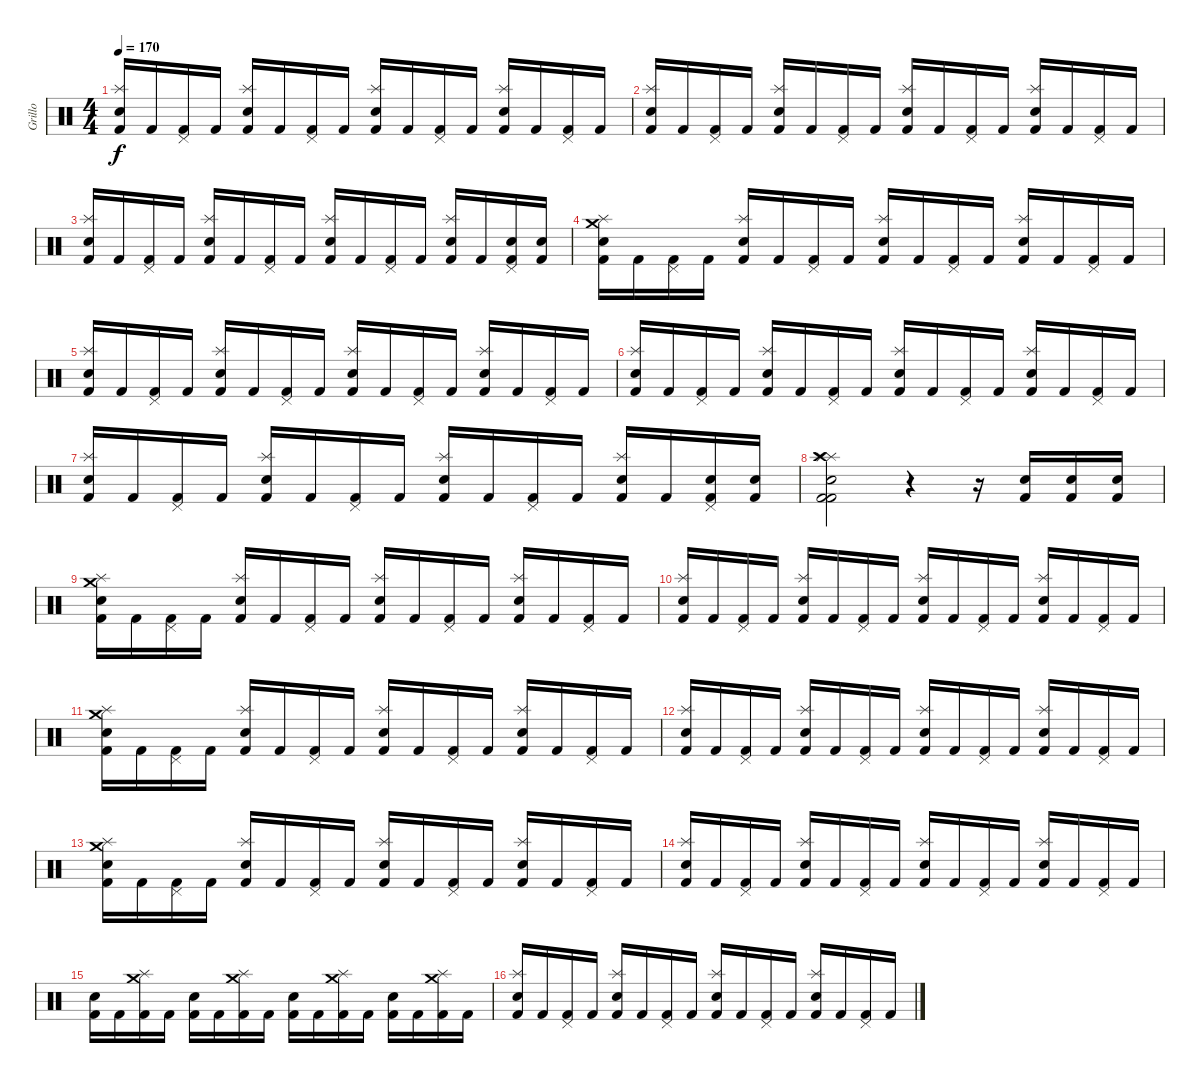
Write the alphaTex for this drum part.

\track ("Grillo" "Grillo") {instrument percussion}
\staff {score}
\articulation defaults
\ts (4 4)
\tempo 170
\clef neutral
\ks c
("Electric Snare (hit)" "Splash (hit)" "Kick (hit) 2").16{dy f} "Kick (hit) 2".16 ("Pedal Hi-Hat (hit)" "Kick (hit) 2").16 "Kick (hit) 2".16 ("Electric Snare (hit)" "Splash (hit)" "Kick (hit) 2").16 "Kick (hit) 2".16 ("Pedal Hi-Hat (hit)" "Kick (hit) 2").16 "Kick (hit) 2".16 ("Electric Snare (hit)" "Splash (hit)" "Kick (hit) 2").16 "Kick (hit) 2".16 ("Pedal Hi-Hat (hit)" "Kick (hit) 2").16 "Kick (hit) 2".16 ("Electric Snare (hit)" "Splash (hit)" "Kick (hit) 2").16 "Kick (hit) 2".16 ("Pedal Hi-Hat (hit)" "Kick (hit) 2").16 "Kick (hit) 2".16 |
("Electric Snare (hit)" "Splash (hit)" "Kick (hit) 2").16 "Kick (hit) 2".16 ("Pedal Hi-Hat (hit)" "Kick (hit) 2").16 "Kick (hit) 2".16 ("Electric Snare (hit)" "Splash (hit)" "Kick (hit) 2").16 "Kick (hit) 2".16 ("Pedal Hi-Hat (hit)" "Kick (hit) 2").16 "Kick (hit) 2".16 ("Electric Snare (hit)" "Splash (hit)" "Kick (hit) 2").16 "Kick (hit) 2".16 ("Pedal Hi-Hat (hit)" "Kick (hit) 2").16 "Kick (hit) 2".16 ("Electric Snare (hit)" "Splash (hit)" "Kick (hit) 2").16 "Kick (hit) 2".16 ("Pedal Hi-Hat (hit)" "Kick (hit) 2").16 "Kick (hit) 2".16 |
("Electric Snare (hit)" "Splash (hit)" "Kick (hit) 2").16 "Kick (hit) 2".16 ("Pedal Hi-Hat (hit)" "Kick (hit) 2").16 "Kick (hit) 2".16 ("Electric Snare (hit)" "Splash (hit)" "Kick (hit) 2").16 "Kick (hit) 2".16 ("Pedal Hi-Hat (hit)" "Kick (hit) 2").16 "Kick (hit) 2".16 ("Electric Snare (hit)" "Splash (hit)" "Kick (hit) 2").16 "Kick (hit) 2".16 ("Pedal Hi-Hat (hit)" "Kick (hit) 2").16 "Kick (hit) 2".16 ("Electric Snare (hit)" "Splash (hit)" "Kick (hit) 2").16 "Kick (hit) 2".16 ("Electric Snare (hit)" "Pedal Hi-Hat (hit)" "Kick (hit) 2").16 ("Electric Snare (hit)" "Kick (hit) 2").16 |
("Electric Snare (hit)" "Splash (hit)" "Crash medium (hit)" "Kick (hit) 2").16 "Kick (hit) 2".16 ("Pedal Hi-Hat (hit)" "Kick (hit) 2").16 "Kick (hit) 2".16 ("Electric Snare (hit)" "Splash (hit)" "Kick (hit) 2").16 "Kick (hit) 2".16 ("Pedal Hi-Hat (hit)" "Kick (hit) 2").16 "Kick (hit) 2".16 ("Electric Snare (hit)" "Splash (hit)" "Kick (hit) 2").16 "Kick (hit) 2".16 ("Pedal Hi-Hat (hit)" "Kick (hit) 2").16 "Kick (hit) 2".16 ("Electric Snare (hit)" "Splash (hit)" "Kick (hit) 2").16 "Kick (hit) 2".16 ("Pedal Hi-Hat (hit)" "Kick (hit) 2").16 "Kick (hit) 2".16 |
("Electric Snare (hit)" "Splash (hit)" "Kick (hit) 2").16 "Kick (hit) 2".16 ("Pedal Hi-Hat (hit)" "Kick (hit) 2").16 "Kick (hit) 2".16 ("Electric Snare (hit)" "Splash (hit)" "Kick (hit) 2").16 "Kick (hit) 2".16 ("Pedal Hi-Hat (hit)" "Kick (hit) 2").16 "Kick (hit) 2".16 ("Electric Snare (hit)" "Splash (hit)" "Kick (hit) 2").16 "Kick (hit) 2".16 ("Pedal Hi-Hat (hit)" "Kick (hit) 2").16 "Kick (hit) 2".16 ("Electric Snare (hit)" "Splash (hit)" "Kick (hit) 2").16 "Kick (hit) 2".16 ("Pedal Hi-Hat (hit)" "Kick (hit) 2").16 "Kick (hit) 2".16 |
("Electric Snare (hit)" "Splash (hit)" "Kick (hit) 2").16 "Kick (hit) 2".16 ("Pedal Hi-Hat (hit)" "Kick (hit) 2").16 "Kick (hit) 2".16 ("Electric Snare (hit)" "Splash (hit)" "Kick (hit) 2").16 "Kick (hit) 2".16 ("Pedal Hi-Hat (hit)" "Kick (hit) 2").16 "Kick (hit) 2".16 ("Electric Snare (hit)" "Splash (hit)" "Kick (hit) 2").16 "Kick (hit) 2".16 ("Pedal Hi-Hat (hit)" "Kick (hit) 2").16 "Kick (hit) 2".16 ("Electric Snare (hit)" "Splash (hit)" "Kick (hit) 2").16 "Kick (hit) 2".16 ("Pedal Hi-Hat (hit)" "Kick (hit) 2").16 "Kick (hit) 2".16 |
("Electric Snare (hit)" "Splash (hit)" "Kick (hit) 2").16 "Kick (hit) 2".16 ("Pedal Hi-Hat (hit)" "Kick (hit) 2").16 "Kick (hit) 2".16 ("Electric Snare (hit)" "Splash (hit)" "Kick (hit) 2").16 "Kick (hit) 2".16 ("Pedal Hi-Hat (hit)" "Kick (hit) 2").16 "Kick (hit) 2".16 ("Electric Snare (hit)" "Splash (hit)" "Kick (hit) 2").16 "Kick (hit) 2".16 ("Pedal Hi-Hat (hit)" "Kick (hit) 2").16 "Kick (hit) 2".16 ("Electric Snare (hit)" "Splash (hit)" "Kick (hit) 2").16 "Kick (hit) 2".16 ("Electric Snare (hit)" "Pedal Hi-Hat (hit)" "Kick (hit) 2").16 ("Electric Snare (hit)" "Kick (hit) 2").16 |
("Electric Snare (hit)" "Splash (hit)" "Splash (hit)" "Crash high (hit)" "Kick (hit) 2" "Kick (hit) 2").2 r.4 r.16 ("Electric Snare (hit)" "Kick (hit) 2").16 ("Electric Snare (hit)" "Kick (hit) 2").16 ("Electric Snare (hit)" "Kick (hit) 2").16 |
("Electric Snare (hit)" "Splash (hit)" "Crash medium (hit)" "Kick (hit) 2").16 "Kick (hit) 2".16 ("Pedal Hi-Hat (hit)" "Kick (hit) 2").16 "Kick (hit) 2".16 ("Electric Snare (hit)" "Splash (hit)" "Kick (hit) 2").16 "Kick (hit) 2".16 ("Pedal Hi-Hat (hit)" "Kick (hit) 2").16 "Kick (hit) 2".16 ("Electric Snare (hit)" "Splash (hit)" "Kick (hit) 2").16 "Kick (hit) 2".16 ("Pedal Hi-Hat (hit)" "Kick (hit) 2").16 "Kick (hit) 2".16 ("Electric Snare (hit)" "Splash (hit)" "Kick (hit) 2").16 "Kick (hit) 2".16 ("Pedal Hi-Hat (hit)" "Kick (hit) 2").16 "Kick (hit) 2".16 |
("Electric Snare (hit)" "Splash (hit)" "Kick (hit) 2").16 "Kick (hit) 2".16 ("Pedal Hi-Hat (hit)" "Kick (hit) 2").16 "Kick (hit) 2".16 ("Electric Snare (hit)" "Splash (hit)" "Kick (hit) 2").16 "Kick (hit) 2".16 ("Pedal Hi-Hat (hit)" "Kick (hit) 2").16 "Kick (hit) 2".16 ("Electric Snare (hit)" "Splash (hit)" "Kick (hit) 2").16 "Kick (hit) 2".16 ("Pedal Hi-Hat (hit)" "Kick (hit) 2").16 "Kick (hit) 2".16 ("Electric Snare (hit)" "Splash (hit)" "Kick (hit) 2").16 "Kick (hit) 2".16 ("Pedal Hi-Hat (hit)" "Kick (hit) 2").16 "Kick (hit) 2".16 |
("Electric Snare (hit)" "Splash (hit)" "Crash medium (hit)" "Kick (hit) 2").16 "Kick (hit) 2".16 ("Pedal Hi-Hat (hit)" "Kick (hit) 2").16 "Kick (hit) 2".16 ("Electric Snare (hit)" "Splash (hit)" "Kick (hit) 2").16 "Kick (hit) 2".16 ("Pedal Hi-Hat (hit)" "Kick (hit) 2").16 "Kick (hit) 2".16 ("Electric Snare (hit)" "Splash (hit)" "Kick (hit) 2").16 "Kick (hit) 2".16 ("Pedal Hi-Hat (hit)" "Kick (hit) 2").16 "Kick (hit) 2".16 ("Electric Snare (hit)" "Splash (hit)" "Kick (hit) 2").16 "Kick (hit) 2".16 ("Pedal Hi-Hat (hit)" "Kick (hit) 2").16 "Kick (hit) 2".16 |
("Electric Snare (hit)" "Splash (hit)" "Kick (hit) 2").16 "Kick (hit) 2".16 ("Pedal Hi-Hat (hit)" "Kick (hit) 2").16 "Kick (hit) 2".16 ("Electric Snare (hit)" "Splash (hit)" "Kick (hit) 2").16 "Kick (hit) 2".16 ("Pedal Hi-Hat (hit)" "Kick (hit) 2").16 "Kick (hit) 2".16 ("Electric Snare (hit)" "Splash (hit)" "Kick (hit) 2").16 "Kick (hit) 2".16 ("Pedal Hi-Hat (hit)" "Kick (hit) 2").16 "Kick (hit) 2".16 ("Electric Snare (hit)" "Splash (hit)" "Kick (hit) 2").16 "Kick (hit) 2".16 ("Pedal Hi-Hat (hit)" "Kick (hit) 2").16 "Kick (hit) 2".16 |
("Electric Snare (hit)" "Splash (hit)" "Crash medium (hit)" "Kick (hit) 2").16 "Kick (hit) 2".16 ("Pedal Hi-Hat (hit)" "Kick (hit) 2").16 "Kick (hit) 2".16 ("Electric Snare (hit)" "Splash (hit)" "Kick (hit) 2").16 "Kick (hit) 2".16 ("Pedal Hi-Hat (hit)" "Kick (hit) 2").16 "Kick (hit) 2".16 ("Electric Snare (hit)" "Splash (hit)" "Kick (hit) 2").16 "Kick (hit) 2".16 ("Pedal Hi-Hat (hit)" "Kick (hit) 2").16 "Kick (hit) 2".16 ("Electric Snare (hit)" "Splash (hit)" "Kick (hit) 2").16 "Kick (hit) 2".16 ("Pedal Hi-Hat (hit)" "Kick (hit) 2").16 "Kick (hit) 2".16 |
("Electric Snare (hit)" "Splash (hit)" "Kick (hit) 2").16 "Kick (hit) 2".16 ("Pedal Hi-Hat (hit)" "Kick (hit) 2").16 "Kick (hit) 2".16 ("Electric Snare (hit)" "Splash (hit)" "Kick (hit) 2").16 "Kick (hit) 2".16 ("Pedal Hi-Hat (hit)" "Kick (hit) 2").16 "Kick (hit) 2".16 ("Electric Snare (hit)" "Splash (hit)" "Kick (hit) 2").16 "Kick (hit) 2".16 ("Pedal Hi-Hat (hit)" "Kick (hit) 2").16 "Kick (hit) 2".16 ("Electric Snare (hit)" "Splash (hit)" "Kick (hit) 2").16 "Kick (hit) 2".16 ("Pedal Hi-Hat (hit)" "Kick (hit) 2").16 "Kick (hit) 2".16 |
("Electric Snare (hit)" "Kick (hit) 2").16 "Kick (hit) 2".16 ("Crash medium (hit)" "Splash (hit)" "Kick (hit) 2").16 "Kick (hit) 2".16 ("Electric Snare (hit)" "Kick (hit) 2").16 "Kick (hit) 2".16 ("Splash (hit)" "Crash medium (hit)" "Kick (hit) 2").16 "Kick (hit) 2".16 ("Electric Snare (hit)" "Kick (hit) 2").16 "Kick (hit) 2".16 ("Splash (hit)" "Crash medium (hit)" "Kick (hit) 2").16 "Kick (hit) 2".16 ("Electric Snare (hit)" "Kick (hit) 2").16 "Kick (hit) 2".16 ("Crash medium (hit)" "Splash (hit)" "Kick (hit) 2").16 "Kick (hit) 2".16 |
("Electric Snare (hit)" "Splash (hit)" "Kick (hit) 2").16 "Kick (hit) 2".16 ("Pedal Hi-Hat (hit)" "Kick (hit) 2").16 "Kick (hit) 2".16 ("Electric Snare (hit)" "Splash (hit)" "Kick (hit) 2").16 "Kick (hit) 2".16 ("Pedal Hi-Hat (hit)" "Kick (hit) 2").16 "Kick (hit) 2".16 ("Electric Snare (hit)" "Splash (hit)" "Kick (hit) 2").16 "Kick (hit) 2".16 ("Pedal Hi-Hat (hit)" "Kick (hit) 2").16 "Kick (hit) 2".16 ("Electric Snare (hit)" "Splash (hit)" "Kick (hit) 2").16 "Kick (hit) 2".16 ("Pedal Hi-Hat (hit)" "Kick (hit) 2").16 "Kick (hit) 2".16
